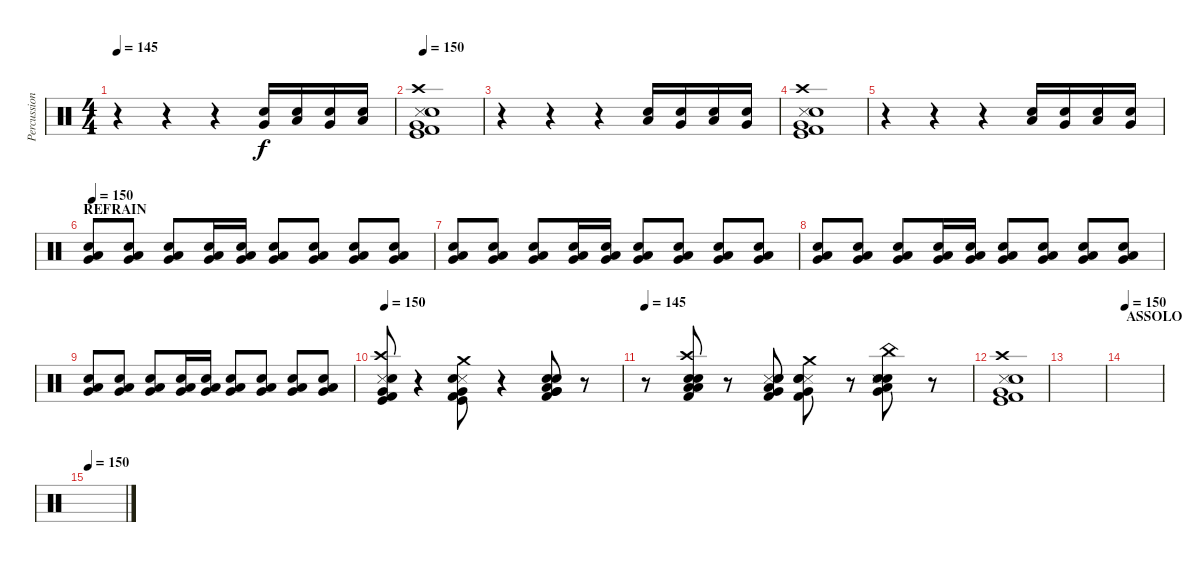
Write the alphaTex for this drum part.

\track ("Percussion-group" "Percussion") {instrument percussion}
\staff {score}
\articulation defaults
\ts (4 4)
\tempo 145
\clef neutral
\ks c
r.4{dy f} r.4 r.4 ("Very Low Tom (hit)" "Electric Snare (hit)").16 ("Low Tom (hit)" "Snare (hit) 2").16 ("Very Low Tom (hit)" "Electric Snare (hit)").16 ("Low Tom (hit)" "Snare (hit) 2").16 |
\tempo 150
("Very Low Tom (hit)" "Crash high (hit)" "Kick (hit)" "Metronome (hit)" "Kick (hit) 2" "Electric Snare (hit)").1 |
r.4 r.4 r.4 ("Low Tom (hit)" "Snare (hit) 2").16 ("Very Low Tom (hit)" "Electric Snare (hit)").16 ("Low Tom (hit)" "Snare (hit) 2").16 ("Very Low Tom (hit)" "Electric Snare (hit)").16 |
("Very Low Tom (hit)" "Crash high (hit)" "Kick (hit)" "Metronome (hit)" "Kick (hit) 2" "Electric Snare (hit)").1 |
r.4 r.4 r.4 ("Low Tom (hit)" "Electric Snare (hit)").16 ("Very Low Tom (hit)" "Snare (hit) 2").16 ("Low Tom (hit)" "Electric Snare (hit)").16 ("Very Low Tom (hit)" "Snare (hit) 2").16 |
\section ("" "REFRAIN")
\tempo 150
("Low Tom (hit)" "Very Low Tom (hit)" "Electric Snare (hit)").8 ("Low Tom (hit)" "Very Low Tom (hit)" "Electric Snare (hit)").8 ("Low Tom (hit)" "Very Low Tom (hit)" "Electric Snare (hit)").8 ("Low Tom (hit)" "Very Low Tom (hit)" "Electric Snare (hit)").16 ("Low Tom (hit)" "Very Low Tom (hit)" "Electric Snare (hit)").16 ("Low Tom (hit)" "Very Low Tom (hit)" "Electric Snare (hit)").8 ("Low Tom (hit)" "Very Low Tom (hit)" "Electric Snare (hit)").8 ("Low Tom (hit)" "Very Low Tom (hit)" "Electric Snare (hit)").8 ("Low Tom (hit)" "Very Low Tom (hit)" "Electric Snare (hit)").8 |
("Low Tom (hit)" "Very Low Tom (hit)" "Electric Snare (hit)").8 ("Low Tom (hit)" "Very Low Tom (hit)" "Electric Snare (hit)").8 ("Low Tom (hit)" "Very Low Tom (hit)" "Electric Snare (hit)").8 ("Low Tom (hit)" "Very Low Tom (hit)" "Electric Snare (hit)").16 ("Low Tom (hit)" "Very Low Tom (hit)" "Electric Snare (hit)").16 ("Low Tom (hit)" "Very Low Tom (hit)" "Electric Snare (hit)").8 ("Low Tom (hit)" "Very Low Tom (hit)" "Electric Snare (hit)").8 ("Low Tom (hit)" "Very Low Tom (hit)" "Electric Snare (hit)").8 ("Low Tom (hit)" "Very Low Tom (hit)" "Electric Snare (hit)").8 |
("Low Tom (hit)" "Very Low Tom (hit)" "Electric Snare (hit)").8 ("Low Tom (hit)" "Very Low Tom (hit)" "Electric Snare (hit)").8 ("Low Tom (hit)" "Very Low Tom (hit)" "Electric Snare (hit)").8 ("Low Tom (hit)" "Very Low Tom (hit)" "Electric Snare (hit)").16 ("Low Tom (hit)" "Very Low Tom (hit)" "Electric Snare (hit)").16 ("Low Tom (hit)" "Very Low Tom (hit)" "Electric Snare (hit)").8 ("Low Tom (hit)" "Very Low Tom (hit)" "Electric Snare (hit)").8 ("Low Tom (hit)" "Very Low Tom (hit)" "Electric Snare (hit)").8 ("Low Tom (hit)" "Very Low Tom (hit)" "Electric Snare (hit)").8 |
("Low Tom (hit)" "Very Low Tom (hit)" "Electric Snare (hit)").8 ("Low Tom (hit)" "Very Low Tom (hit)" "Electric Snare (hit)").8 ("Low Tom (hit)" "Very Low Tom (hit)" "Electric Snare (hit)").8 ("Low Tom (hit)" "Very Low Tom (hit)" "Electric Snare (hit)").16 ("Low Tom (hit)" "Very Low Tom (hit)" "Electric Snare (hit)").16 ("Low Tom (hit)" "Very Low Tom (hit)" "Electric Snare (hit)").8 ("Low Tom (hit)" "Very Low Tom (hit)" "Electric Snare (hit)").8 ("Low Tom (hit)" "Very Low Tom (hit)" "Electric Snare (hit)").8 ("Low Tom (hit)" "Very Low Tom (hit)" "Electric Snare (hit)").8 |
\tempo 150
("Very Low Tom (hit)" "Crash high (hit)" "Kick (hit)" "Metronome (hit)" "Kick (hit) 2" "Electric Snare (hit)").8 r.4 ("Very Low Tom (hit)" "Kick (hit)" "Crash medium (hit)" "Metronome (hit)" "Kick (hit) 2" "Electric Snare (hit)").8 r.4 ("Very Low Tom (hit)" "Very Low Tom (hit)" "Low Tom (hit)" "Kick (hit) 2" "Snare (hit) 2" "Electric Snare (hit)").8 r.8 |
\tempo 145
r.8 ("Low Tom (hit)" "Low Tom (hit)" "Crash high (hit)" "Kick (hit) 2" "Snare (hit) 2" "Electric Snare (hit)").8 r.8 ("Very Low Tom (hit)" "Low Tom (hit)" "Metronome (hit)" "Kick (hit) 2" "Snare (hit) 2" "Electric Snare (hit)").8 ("Very Low Tom (hit)" "Metronome (hit)" "Kick (hit) 2" "Crash medium (hit)" "Snare (hit) 2" "Electric Snare (hit)").8 r.8 ("Very Low Tom (hit)" "Low Tom (hit)" "Snare (hit) 2" "Electric Snare (hit)" "Metronome (hit)" "China (hit)").8 r.8 |
("Very Low Tom (hit)" "Crash high (hit)" "Kick (hit)" "Metronome (hit)" "Kick (hit) 2" "Electric Snare (hit)").1 |
|
\section ("" "ASSOLO")
\tempo 150
|
\tempo 150
